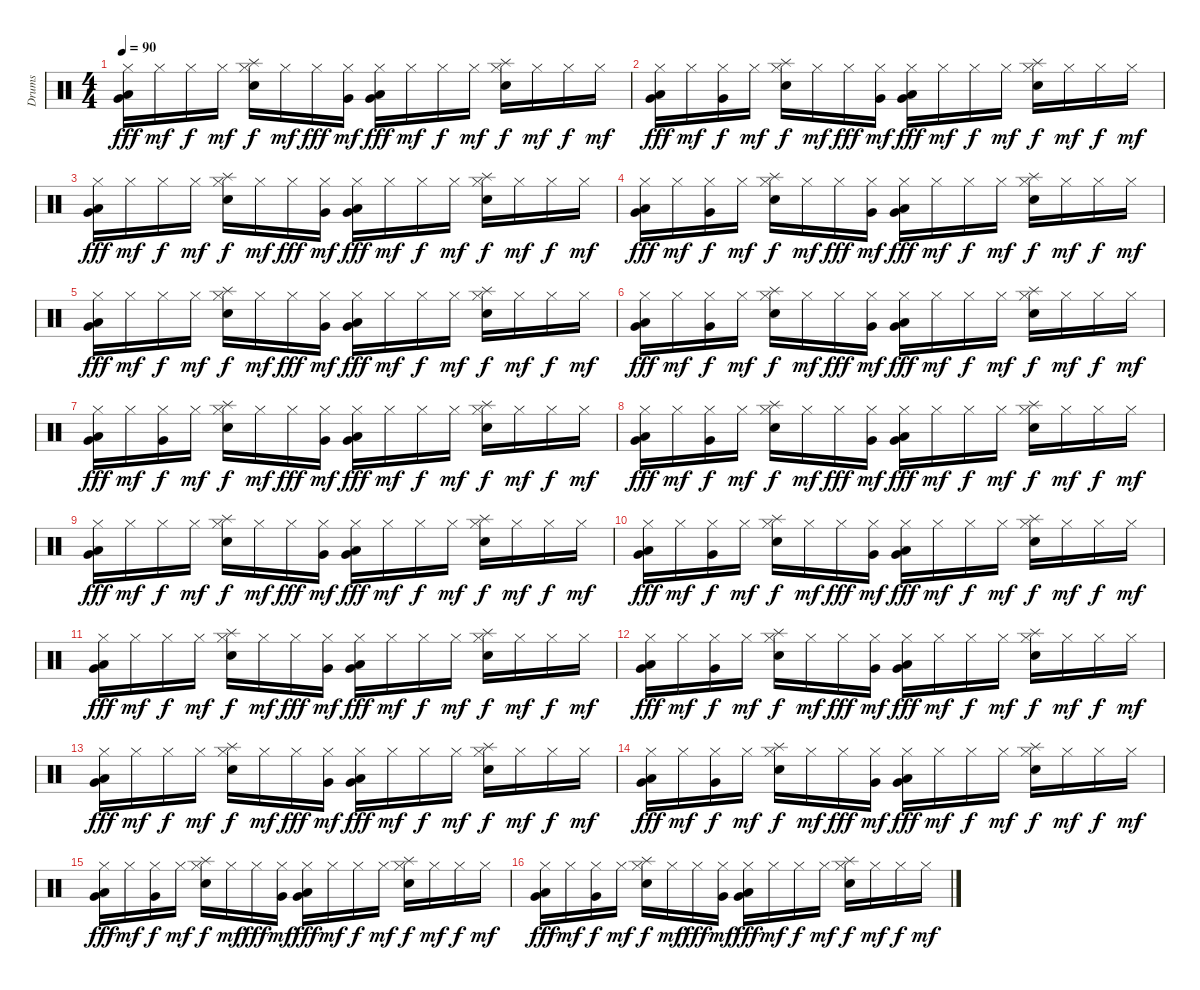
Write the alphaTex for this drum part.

\track ("Drums" "Drums") {instrument percussion}
\staff {score}
\articulation defaults
\ts (4 4)
\tempo 90
\clef neutral
\ks c
("Very Low Tom (hit)" "Low Floor Tom (hit)" "Hi-Hat (closed)").16{dy fff} "Hi-Hat (closed)".16{dy mf} "Hi-Hat (closed)".16{dy f} "Hi-Hat (closed)".16{dy mf} ("Electric Snare (hit)" "Splash (hit)" "Hi-Hat (closed)").16{dy f} "Hi-Hat (closed)".16{dy mf} "Hi-Hat (closed)".16{dy fff} ("Very Low Tom (hit)" "Hi-Hat (closed)").16{dy mf} ("Very Low Tom (hit)" "Low Floor Tom (hit)" "Hi-Hat (closed)").16{dy fff} "Hi-Hat (closed)".16{dy mf} "Hi-Hat (closed)".16{dy f} "Hi-Hat (closed)".16{dy mf} ("Electric Snare (hit)" "Splash (hit)" "Hi-Hat (closed)").16{dy f} "Hi-Hat (closed)".16{dy mf} "Hi-Hat (closed)".16{dy f} "Hi-Hat (closed)".16{dy mf} |
("Very Low Tom (hit)" "Low Floor Tom (hit)" "Hi-Hat (closed)").16{dy fff} "Hi-Hat (closed)".16{dy mf} ("Very Low Tom (hit)" "Hi-Hat (closed)").16{dy f} "Hi-Hat (closed)".16{dy mf} ("Electric Snare (hit)" "Splash (hit)" "Hi-Hat (closed)").16{dy f} "Hi-Hat (closed)".16{dy mf} "Hi-Hat (closed)".16{dy fff} ("Very Low Tom (hit)" "Hi-Hat (closed)").16{dy mf} ("Very Low Tom (hit)" "Low Floor Tom (hit)" "Hi-Hat (closed)").16{dy fff} "Hi-Hat (closed)".16{dy mf} "Hi-Hat (closed)".16{dy f} "Hi-Hat (closed)".16{dy mf} ("Electric Snare (hit)" "Splash (hit)" "Hi-Hat (closed)").16{dy f} "Hi-Hat (closed)".16{dy mf} "Hi-Hat (closed)".16{dy f} "Hi-Hat (closed)".16{dy mf} |
("Very Low Tom (hit)" "Low Floor Tom (hit)" "Hi-Hat (closed)").16{dy fff} "Hi-Hat (closed)".16{dy mf} "Hi-Hat (closed)".16{dy f} "Hi-Hat (closed)".16{dy mf} ("Electric Snare (hit)" "Splash (hit)" "Hi-Hat (closed)").16{dy f} "Hi-Hat (closed)".16{dy mf} "Hi-Hat (closed)".16{dy fff} ("Very Low Tom (hit)" "Hi-Hat (closed)").16{dy mf} ("Very Low Tom (hit)" "Low Floor Tom (hit)" "Hi-Hat (closed)").16{dy fff} "Hi-Hat (closed)".16{dy mf} "Hi-Hat (closed)".16{dy f} "Hi-Hat (closed)".16{dy mf} ("Electric Snare (hit)" "Splash (hit)" "Hi-Hat (closed)").16{dy f} "Hi-Hat (closed)".16{dy mf} "Hi-Hat (closed)".16{dy f} "Hi-Hat (closed)".16{dy mf} |
("Very Low Tom (hit)" "Low Floor Tom (hit)" "Hi-Hat (closed)").16{dy fff} "Hi-Hat (closed)".16{dy mf} ("Very Low Tom (hit)" "Hi-Hat (closed)").16{dy f} "Hi-Hat (closed)".16{dy mf} ("Electric Snare (hit)" "Splash (hit)" "Hi-Hat (closed)").16{dy f} "Hi-Hat (closed)".16{dy mf} "Hi-Hat (closed)".16{dy fff} ("Very Low Tom (hit)" "Hi-Hat (closed)").16{dy mf} ("Very Low Tom (hit)" "Low Floor Tom (hit)" "Hi-Hat (closed)").16{dy fff} "Hi-Hat (closed)".16{dy mf} "Hi-Hat (closed)".16{dy f} "Hi-Hat (closed)".16{dy mf} ("Electric Snare (hit)" "Splash (hit)" "Hi-Hat (closed)").16{dy f} "Hi-Hat (closed)".16{dy mf} "Hi-Hat (closed)".16{dy f} "Hi-Hat (closed)".16{dy mf} |
("Very Low Tom (hit)" "Low Floor Tom (hit)" "Hi-Hat (closed)").16{dy fff} "Hi-Hat (closed)".16{dy mf} "Hi-Hat (closed)".16{dy f} "Hi-Hat (closed)".16{dy mf} ("Electric Snare (hit)" "Splash (hit)" "Hi-Hat (closed)").16{dy f} "Hi-Hat (closed)".16{dy mf} "Hi-Hat (closed)".16{dy fff} ("Very Low Tom (hit)" "Hi-Hat (closed)").16{dy mf} ("Very Low Tom (hit)" "Low Floor Tom (hit)" "Hi-Hat (closed)").16{dy fff} "Hi-Hat (closed)".16{dy mf} "Hi-Hat (closed)".16{dy f} "Hi-Hat (closed)".16{dy mf} ("Electric Snare (hit)" "Splash (hit)" "Hi-Hat (closed)").16{dy f} "Hi-Hat (closed)".16{dy mf} "Hi-Hat (closed)".16{dy f} "Hi-Hat (closed)".16{dy mf} |
("Very Low Tom (hit)" "Low Floor Tom (hit)" "Hi-Hat (closed)").16{dy fff} "Hi-Hat (closed)".16{dy mf} ("Very Low Tom (hit)" "Hi-Hat (closed)").16{dy f} "Hi-Hat (closed)".16{dy mf} ("Electric Snare (hit)" "Splash (hit)" "Hi-Hat (closed)").16{dy f} "Hi-Hat (closed)".16{dy mf} "Hi-Hat (closed)".16{dy fff} ("Very Low Tom (hit)" "Hi-Hat (closed)").16{dy mf} ("Very Low Tom (hit)" "Low Floor Tom (hit)" "Hi-Hat (closed)").16{dy fff} "Hi-Hat (closed)".16{dy mf} "Hi-Hat (closed)".16{dy f} "Hi-Hat (closed)".16{dy mf} ("Electric Snare (hit)" "Splash (hit)" "Hi-Hat (closed)").16{dy f} "Hi-Hat (closed)".16{dy mf} "Hi-Hat (closed)".16{dy f} "Hi-Hat (closed)".16{dy mf} |
("Very Low Tom (hit)" "Low Floor Tom (hit)" "Hi-Hat (closed)").16{dy fff} "Hi-Hat (closed)".16{dy mf} ("Very Low Tom (hit)" "Hi-Hat (closed)").16{dy f} "Hi-Hat (closed)".16{dy mf} ("Electric Snare (hit)" "Splash (hit)" "Hi-Hat (closed)").16{dy f} "Hi-Hat (closed)".16{dy mf} "Hi-Hat (closed)".16{dy fff} ("Very Low Tom (hit)" "Hi-Hat (closed)").16{dy mf} ("Very Low Tom (hit)" "Low Floor Tom (hit)" "Hi-Hat (closed)").16{dy fff} "Hi-Hat (closed)".16{dy mf} "Hi-Hat (closed)".16{dy f} "Hi-Hat (closed)".16{dy mf} ("Electric Snare (hit)" "Splash (hit)" "Hi-Hat (closed)").16{dy f} "Hi-Hat (closed)".16{dy mf} "Hi-Hat (closed)".16{dy f} "Hi-Hat (closed)".16{dy mf} |
("Very Low Tom (hit)" "Low Floor Tom (hit)" "Hi-Hat (closed)").16{dy fff} "Hi-Hat (closed)".16{dy mf} ("Very Low Tom (hit)" "Hi-Hat (closed)").16{dy f} "Hi-Hat (closed)".16{dy mf} ("Electric Snare (hit)" "Splash (hit)" "Hi-Hat (closed)").16{dy f} "Hi-Hat (closed)".16{dy mf} "Hi-Hat (closed)".16{dy fff} ("Very Low Tom (hit)" "Hi-Hat (closed)").16{dy mf} ("Very Low Tom (hit)" "Low Floor Tom (hit)" "Hi-Hat (closed)").16{dy fff} "Hi-Hat (closed)".16{dy mf} "Hi-Hat (closed)".16{dy f} "Hi-Hat (closed)".16{dy mf} ("Electric Snare (hit)" "Splash (hit)" "Hi-Hat (closed)").16{dy f} "Hi-Hat (closed)".16{dy mf} "Hi-Hat (closed)".16{dy f} "Hi-Hat (closed)".16{dy mf} |
("Very Low Tom (hit)" "Low Floor Tom (hit)" "Hi-Hat (closed)").16{dy fff} "Hi-Hat (closed)".16{dy mf} "Hi-Hat (closed)".16{dy f} "Hi-Hat (closed)".16{dy mf} ("Electric Snare (hit)" "Splash (hit)" "Hi-Hat (closed)").16{dy f} "Hi-Hat (closed)".16{dy mf} "Hi-Hat (closed)".16{dy fff} ("Very Low Tom (hit)" "Hi-Hat (closed)").16{dy mf} ("Very Low Tom (hit)" "Low Floor Tom (hit)" "Hi-Hat (closed)").16{dy fff} "Hi-Hat (closed)".16{dy mf} "Hi-Hat (closed)".16{dy f} "Hi-Hat (closed)".16{dy mf} ("Electric Snare (hit)" "Splash (hit)" "Hi-Hat (closed)").16{dy f} "Hi-Hat (closed)".16{dy mf} "Hi-Hat (closed)".16{dy f} "Hi-Hat (closed)".16{dy mf} |
("Very Low Tom (hit)" "Low Floor Tom (hit)" "Hi-Hat (closed)").16{dy fff} "Hi-Hat (closed)".16{dy mf} ("Very Low Tom (hit)" "Hi-Hat (closed)").16{dy f} "Hi-Hat (closed)".16{dy mf} ("Electric Snare (hit)" "Splash (hit)" "Hi-Hat (closed)").16{dy f} "Hi-Hat (closed)".16{dy mf} "Hi-Hat (closed)".16{dy fff} ("Very Low Tom (hit)" "Hi-Hat (closed)").16{dy mf} ("Very Low Tom (hit)" "Low Floor Tom (hit)" "Hi-Hat (closed)").16{dy fff} "Hi-Hat (closed)".16{dy mf} "Hi-Hat (closed)".16{dy f} "Hi-Hat (closed)".16{dy mf} ("Electric Snare (hit)" "Splash (hit)" "Hi-Hat (closed)").16{dy f} "Hi-Hat (closed)".16{dy mf} "Hi-Hat (closed)".16{dy f} "Hi-Hat (closed)".16{dy mf} |
("Very Low Tom (hit)" "Low Floor Tom (hit)" "Hi-Hat (closed)").16{dy fff} "Hi-Hat (closed)".16{dy mf} "Hi-Hat (closed)".16{dy f} "Hi-Hat (closed)".16{dy mf} ("Electric Snare (hit)" "Splash (hit)" "Hi-Hat (closed)").16{dy f} "Hi-Hat (closed)".16{dy mf} "Hi-Hat (closed)".16{dy fff} ("Very Low Tom (hit)" "Hi-Hat (closed)").16{dy mf} ("Very Low Tom (hit)" "Low Floor Tom (hit)" "Hi-Hat (closed)").16{dy fff} "Hi-Hat (closed)".16{dy mf} "Hi-Hat (closed)".16{dy f} "Hi-Hat (closed)".16{dy mf} ("Electric Snare (hit)" "Splash (hit)" "Hi-Hat (closed)").16{dy f} "Hi-Hat (closed)".16{dy mf} "Hi-Hat (closed)".16{dy f} "Hi-Hat (closed)".16{dy mf} |
("Very Low Tom (hit)" "Low Floor Tom (hit)" "Hi-Hat (closed)").16{dy fff} "Hi-Hat (closed)".16{dy mf} ("Very Low Tom (hit)" "Hi-Hat (closed)").16{dy f} "Hi-Hat (closed)".16{dy mf} ("Electric Snare (hit)" "Splash (hit)" "Hi-Hat (closed)").16{dy f} "Hi-Hat (closed)".16{dy mf} "Hi-Hat (closed)".16{dy fff} ("Very Low Tom (hit)" "Hi-Hat (closed)").16{dy mf} ("Very Low Tom (hit)" "Low Floor Tom (hit)" "Hi-Hat (closed)").16{dy fff} "Hi-Hat (closed)".16{dy mf} "Hi-Hat (closed)".16{dy f} "Hi-Hat (closed)".16{dy mf} ("Electric Snare (hit)" "Splash (hit)" "Hi-Hat (closed)").16{dy f} "Hi-Hat (closed)".16{dy mf} "Hi-Hat (closed)".16{dy f} "Hi-Hat (closed)".16{dy mf} |
("Very Low Tom (hit)" "Low Floor Tom (hit)" "Hi-Hat (closed)").16{dy fff} "Hi-Hat (closed)".16{dy mf} "Hi-Hat (closed)".16{dy f} "Hi-Hat (closed)".16{dy mf} ("Electric Snare (hit)" "Splash (hit)" "Hi-Hat (closed)").16{dy f} "Hi-Hat (closed)".16{dy mf} "Hi-Hat (closed)".16{dy fff} ("Very Low Tom (hit)" "Hi-Hat (closed)").16{dy mf} ("Very Low Tom (hit)" "Low Floor Tom (hit)" "Hi-Hat (closed)").16{dy fff} "Hi-Hat (closed)".16{dy mf} "Hi-Hat (closed)".16{dy f} "Hi-Hat (closed)".16{dy mf} ("Electric Snare (hit)" "Splash (hit)" "Hi-Hat (closed)").16{dy f} "Hi-Hat (closed)".16{dy mf} "Hi-Hat (closed)".16{dy f} "Hi-Hat (closed)".16{dy mf} |
("Very Low Tom (hit)" "Low Floor Tom (hit)" "Hi-Hat (closed)").16{dy fff} "Hi-Hat (closed)".16{dy mf} ("Very Low Tom (hit)" "Hi-Hat (closed)").16{dy f} "Hi-Hat (closed)".16{dy mf} ("Electric Snare (hit)" "Splash (hit)" "Hi-Hat (closed)").16{dy f} "Hi-Hat (closed)".16{dy mf} "Hi-Hat (closed)".16{dy fff} ("Very Low Tom (hit)" "Hi-Hat (closed)").16{dy mf} ("Very Low Tom (hit)" "Low Floor Tom (hit)" "Hi-Hat (closed)").16{dy fff} "Hi-Hat (closed)".16{dy mf} "Hi-Hat (closed)".16{dy f} "Hi-Hat (closed)".16{dy mf} ("Electric Snare (hit)" "Splash (hit)" "Hi-Hat (closed)").16{dy f} "Hi-Hat (closed)".16{dy mf} "Hi-Hat (closed)".16{dy f} "Hi-Hat (closed)".16{dy mf} |
("Very Low Tom (hit)" "Low Floor Tom (hit)" "Hi-Hat (closed)").16{dy fff} "Hi-Hat (closed)".16{dy mf} ("Very Low Tom (hit)" "Hi-Hat (closed)").16{dy f} "Hi-Hat (closed)".16{dy mf} ("Electric Snare (hit)" "Splash (hit)" "Hi-Hat (closed)").16{dy f} "Hi-Hat (closed)".16{dy mf} "Hi-Hat (closed)".16{dy fff} ("Very Low Tom (hit)" "Hi-Hat (closed)").16{dy mf} ("Very Low Tom (hit)" "Low Floor Tom (hit)" "Hi-Hat (closed)").16{dy fff} "Hi-Hat (closed)".16{dy mf} "Hi-Hat (closed)".16{dy f} "Hi-Hat (closed)".16{dy mf} ("Electric Snare (hit)" "Splash (hit)" "Hi-Hat (closed)").16{dy f} "Hi-Hat (closed)".16{dy mf} "Hi-Hat (closed)".16{dy f} "Hi-Hat (closed)".16{dy mf} |
("Very Low Tom (hit)" "Low Floor Tom (hit)" "Hi-Hat (closed)").16{dy fff} "Hi-Hat (closed)".16{dy mf} ("Very Low Tom (hit)" "Hi-Hat (closed)").16{dy f} "Hi-Hat (closed)".16{dy mf} ("Electric Snare (hit)" "Splash (hit)" "Hi-Hat (closed)").16{dy f} "Hi-Hat (closed)".16{dy mf} "Hi-Hat (closed)".16{dy fff} ("Very Low Tom (hit)" "Hi-Hat (closed)").16{dy mf} ("Very Low Tom (hit)" "Low Floor Tom (hit)" "Hi-Hat (closed)").16{dy fff} "Hi-Hat (closed)".16{dy mf} "Hi-Hat (closed)".16{dy f} "Hi-Hat (closed)".16{dy mf} ("Electric Snare (hit)" "Splash (hit)" "Hi-Hat (closed)").16{dy f} "Hi-Hat (closed)".16{dy mf} "Hi-Hat (closed)".16{dy f} "Hi-Hat (closed)".16{dy mf}
